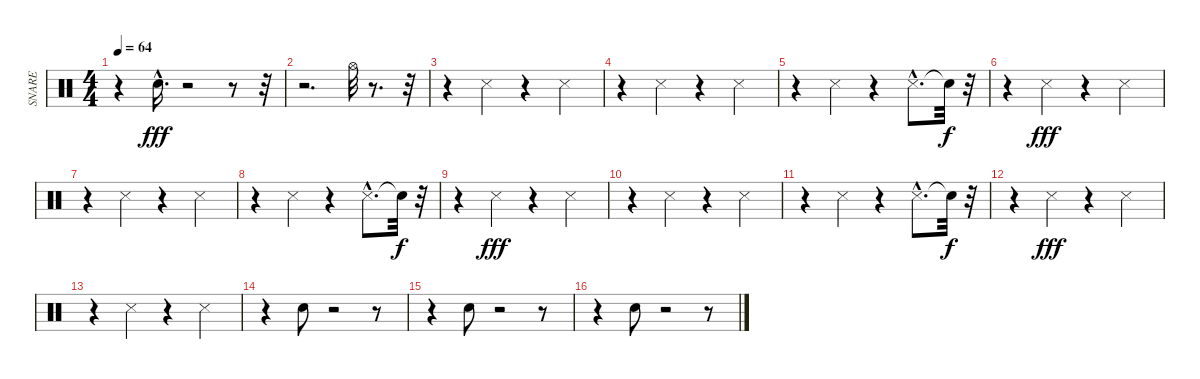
\track ("SNARE" "SNARE") {instrument percussion}
\staff {score}
\articulation defaults
\ts (4 4)
\tempo 64
\clef neutral
\ks c
r.4{dy fff} "Snare (hit) 2"{hac}.16{d} r.2 r.8 r.32 |
r.2{d} "Hi-Hat (open)".32 r.8{d} r.32 |
r.4 "Snare (side stick) 3".4 r.4 "Snare (side stick) 3".4 |
r.4 "Snare (side stick) 3".4 r.4 "Snare (side stick) 3".4 |
r.4 "Snare (side stick) 3".4 r.4 "Snare (side stick) 3"{hac}.8{d} "Snare (hit)"{t}.32{dy f} r.32 |
r.4 "Snare (side stick) 3".4{dy fff} r.4 "Snare (side stick) 3".4 |
r.4 "Snare (side stick) 3".4 r.4 "Snare (side stick) 3".4 |
r.4 "Snare (side stick) 3".4 r.4 "Snare (side stick) 3"{hac}.8{d} "Snare (hit)"{t}.32{dy f} r.32 |
r.4 "Snare (side stick) 3".4{dy fff} r.4 "Snare (side stick) 3".4 |
r.4 "Snare (side stick) 3".4 r.4 "Snare (side stick) 3".4 |
r.4 "Snare (side stick) 3".4 r.4 "Snare (side stick) 3"{hac}.8{d} "Snare (hit)"{t}.32{dy f} r.32 |
r.4 "Snare (side stick) 3".4{dy fff} r.4 "Snare (side stick) 3".4 |
r.4 "Snare (side stick) 3".4 r.4 "Snare (side stick) 3".4 |
r.4 "Snare (hit) 2".8 r.2 r.8 |
r.4 "Snare (hit) 2".8 r.2 r.8 |
r.4 "Snare (hit) 2".8 r.2 r.8
